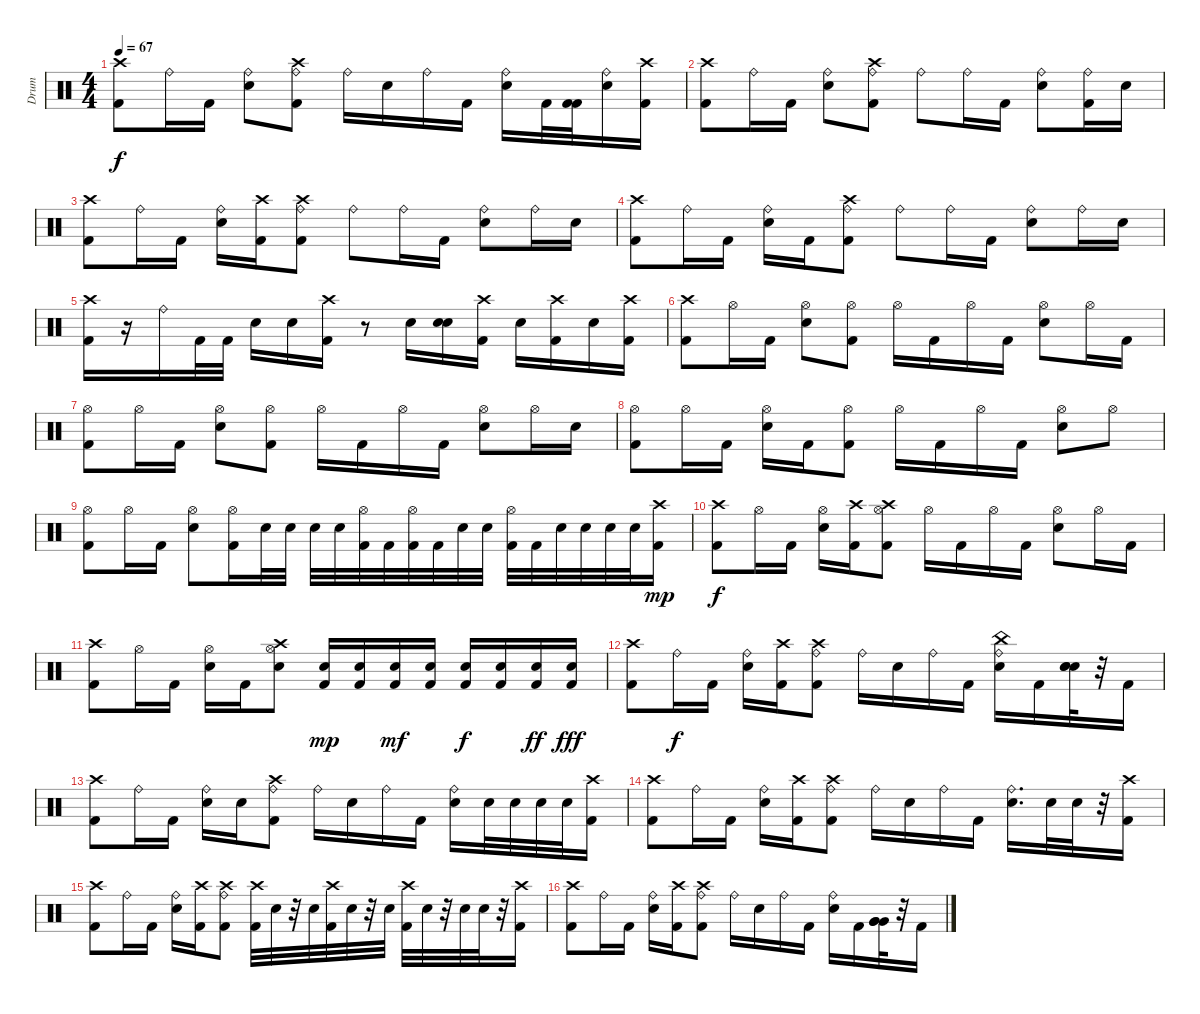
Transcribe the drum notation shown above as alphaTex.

\track ("Drum" "Drum") {instrument percussion}
\staff {score}
\articulation defaults
\ts (4 4)
\tempo 67
\clef neutral
\ks c
("Kick (hit) 2" "Crash high (hit)").8{dy f} "Ride (bell)".16 "Kick (hit) 2".16 ("Electric Snare (hit)" "Ride (bell)").8 ("Kick (hit) 2" "Ride (bell)" "Crash high (hit)").8 "Ride (bell)".16 "Electric Snare (hit)".16 "Ride (bell)".16 "Kick (hit) 2".16 ("Ride (bell)" "Electric Snare (hit)").16 "Kick (hit) 2".32 ("Kick (hit) 2" "Kick (hit) 2").32 ("Ride (bell)" "Electric Snare (hit)").16 ("Kick (hit) 2" "Crash high (hit)").16 |
("Crash high (hit)" "Kick (hit) 2").8 "Ride (bell)".16 "Kick (hit) 2".16 ("Electric Snare (hit)" "Ride (bell)").8 ("Kick (hit) 2" "Ride (bell)" "Crash high (hit)").8 "Ride (bell)".8 "Ride (bell)".16 "Kick (hit) 2".16 ("Electric Snare (hit)" "Ride (bell)").8 ("Ride (bell)" "Kick (hit) 2").16 "Electric Snare (hit)".16 |
("Kick (hit) 2" "Crash high (hit)").8 "Ride (bell)".16 "Kick (hit) 2".16 ("Ride (bell)" "Electric Snare (hit)").16 ("Crash high (hit)" "Kick (hit) 2").16 ("Kick (hit) 2" "Ride (bell)" "Crash high (hit)").8 "Ride (bell)".8 "Ride (bell)".16 "Kick (hit) 2".16 ("Electric Snare (hit)" "Ride (bell)").8 "Ride (bell)".16 "Electric Snare (hit)".16 |
("Crash high (hit)" "Kick (hit) 2").8 "Ride (bell)".16 "Kick (hit) 2".16 ("Ride (bell)" "Electric Snare (hit)").16 "Kick (hit) 2".16 ("Kick (hit) 2" "Ride (bell)" "Crash high (hit)").8 "Ride (bell)".8 "Ride (bell)".16 "Kick (hit) 2".16 ("Electric Snare (hit)" "Ride (bell)").8 "Ride (bell)".16 "Electric Snare (hit)".16 |
("Crash high (hit)" "Kick (hit) 2").16 r.16 "Ride (bell)".16 "Kick (hit) 2".32 "Kick (hit) 2".32 "Electric Snare (hit)".16 "Electric Snare (hit)".16 ("Crash high (hit)" "Kick (hit) 2").16 r.8 "Electric Snare (hit)".16 ("Electric Snare (hit)" "Electric Snare (hit)").16 ("Crash high (hit)" "Kick (hit) 2").16 "Electric Snare (hit)".16 ("Crash high (hit)" "Kick (hit) 2").16 "Electric Snare (hit)".16 ("Kick (hit) 2" "Crash high (hit)").16 |
("Crash high (hit)" "Kick (hit) 2").8 "Hi-Hat (open)".16 "Kick (hit) 2".16 ("Hi-Hat (open)" "Electric Snare (hit)").8 ("Hi-Hat (open)" "Kick (hit) 2").8 "Hi-Hat (open)".16 "Kick (hit) 2".16 "Hi-Hat (open)".16 "Kick (hit) 2".16 ("Hi-Hat (open)" "Electric Snare (hit)").8 "Hi-Hat (open)".16 "Kick (hit) 2".16 |
("Kick (hit) 2" "Hi-Hat (open)").8 "Hi-Hat (open)".16 "Kick (hit) 2".16 ("Hi-Hat (open)" "Electric Snare (hit)").8 ("Hi-Hat (open)" "Kick (hit) 2").8 "Hi-Hat (open)".16 "Kick (hit) 2".16 "Hi-Hat (open)".16 "Kick (hit) 2".16 ("Hi-Hat (open)" "Electric Snare (hit)").8 "Hi-Hat (open)".16 "Electric Snare (hit)".16 |
("Hi-Hat (open)" "Kick (hit) 2").8 "Hi-Hat (open)".16 "Kick (hit) 2".16 ("Hi-Hat (open)" "Electric Snare (hit)").16 "Kick (hit) 2".16 ("Hi-Hat (open)" "Kick (hit) 2").8 "Hi-Hat (open)".16 "Kick (hit) 2".16 "Hi-Hat (open)".16 "Kick (hit) 2".16 ("Hi-Hat (open)" "Electric Snare (hit)").8 "Hi-Hat (open)".8 |
("Hi-Hat (open)" "Kick (hit) 2").8 "Hi-Hat (open)".16 "Kick (hit) 2".16 ("Electric Snare (hit)" "Hi-Hat (open)").8 ("Kick (hit) 2" "Hi-Hat (open)").16 "Electric Snare (hit)".32 "Electric Snare (hit)".32 "Electric Snare (hit)".32 "Electric Snare (hit)".32 ("Kick (hit) 2" "Hi-Hat (open)").32 "Kick (hit) 2".32 ("Kick (hit) 2" "Hi-Hat (open)").32 "Kick (hit) 2".32 "Electric Snare (hit)".32 "Electric Snare (hit)".32 ("Kick (hit) 2" "Hi-Hat (open)").32 "Kick (hit) 2".32 "Electric Snare (hit)".32 "Electric Snare (hit)".32 "Electric Snare (hit)".32 "Electric Snare (hit)".32 ("Crash high (hit)" "Kick (hit) 2").16{dy mp} |
("Kick (hit) 2" "Crash high (hit)").8{dy f} "Hi-Hat (open)".16 "Kick (hit) 2".16 ("Hi-Hat (open)" "Electric Snare (hit)").16 ("Kick (hit) 2" "Crash high (hit)").16 ("Hi-Hat (open)" "Kick (hit) 2" "Crash high (hit)").8 "Hi-Hat (open)".16 "Kick (hit) 2".16 "Hi-Hat (open)".16 "Kick (hit) 2".16 ("Hi-Hat (open)" "Electric Snare (hit)").8 "Hi-Hat (open)".16 "Kick (hit) 2".16 |
("Kick (hit) 2" "Crash high (hit)").8 "Hi-Hat (open)".16 "Kick (hit) 2".16 ("Hi-Hat (open)" "Electric Snare (hit)").16 "Kick (hit) 2".16 ("Hi-Hat (open)" "Crash high (hit)" "Electric Snare (hit)").8 ("Kick (hit) 2" "Electric Snare (hit)").16{dy mp} ("Electric Snare (hit)" "Kick (hit) 2").16 ("Electric Snare (hit)" "Kick (hit) 2").16{dy mf} ("Electric Snare (hit)" "Kick (hit) 2").16 ("Electric Snare (hit)" "Kick (hit) 2").16{dy f} ("Electric Snare (hit)" "Kick (hit) 2").16 ("Electric Snare (hit)" "Kick (hit) 2").16{dy ff} ("Electric Snare (hit)" "Kick (hit) 2").16{dy fff} |
("Crash high (hit)" "Kick (hit) 2").8 "Ride (bell)".16{dy f} "Kick (hit) 2".16 ("Ride (bell)" "Electric Snare (hit)").16 ("Kick (hit) 2" "Crash high (hit)").16 ("Ride (bell)" "Crash high (hit)" "Kick (hit) 2").8 "Ride (bell)".16 "Electric Snare (hit)".16 "Ride (bell)".16 "Kick (hit) 2".16 ("Electric Snare (hit)" "Ride (bell)" "China (hit)").16 "Kick (hit) 2".16 ("Electric Snare (hit)" "Electric Snare (hit)" "Electric Snare (hit)").32 r.32 "Kick (hit) 2".16 |
("Kick (hit) 2" "Crash high (hit)").8 "Ride (bell)".16 "Kick (hit) 2".16 ("Ride (bell)" "Electric Snare (hit)").16 "Electric Snare (hit)".16 ("Ride (bell)" "Crash high (hit)" "Kick (hit) 2").8 "Ride (bell)".16 "Electric Snare (hit)".16 "Ride (bell)".16 "Kick (hit) 2".16 ("Ride (bell)" "Electric Snare (hit)").16 "Electric Snare (hit)".32 "Electric Snare (hit)".32 "Electric Snare (hit)".32 "Electric Snare (hit)".32 ("Crash high (hit)" "Kick (hit) 2").16 |
("Kick (hit) 2" "Crash high (hit)").8 "Ride (bell)".16 "Kick (hit) 2".16 ("Ride (bell)" "Electric Snare (hit)").16 ("Crash high (hit)" "Kick (hit) 2").16 ("Ride (bell)" "Crash high (hit)" "Kick (hit) 2").8 "Ride (bell)".16 "Electric Snare (hit)".16 "Ride (bell)".16 "Kick (hit) 2".16 ("Electric Snare (hit)" "Ride (bell)").16{d} "Electric Snare (hit)".32 "Electric Snare (hit)".32 r.32 ("Kick (hit) 2" "Crash high (hit)").16 |
("Crash high (hit)" "Kick (hit) 2").8 "Ride (bell)".16 "Kick (hit) 2".16 ("Ride (bell)" "Electric Snare (hit)").16 ("Crash high (hit)" "Kick (hit) 2").16 ("Ride (bell)" "Crash high (hit)" "Kick (hit) 2").8 ("Kick (hit) 2" "Crash high (hit)").32 "Electric Snare (hit)".32 r.32 "Electric Snare (hit)".32 ("Kick (hit) 2" "Crash high (hit)").32 "Electric Snare (hit)".32 r.32 "Electric Snare (hit)".32 ("Kick (hit) 2" "Crash high (hit)").32 "Electric Snare (hit)".32 r.32 "Electric Snare (hit)".32 "Electric Snare (hit)".32 r.32 ("Crash high (hit)" "Kick (hit) 2").16 |
("Kick (hit) 2" "Crash high (hit)").8 "Ride (bell)".16 "Kick (hit) 2".16 ("Ride (bell)" "Electric Snare (hit)").16 ("Kick (hit) 2" "Crash high (hit)").16 ("Ride (bell)" "Crash high (hit)" "Kick (hit) 2").8 "Ride (bell)".16 "Electric Snare (hit)".16 "Ride (bell)".16 "Kick (hit) 2".16 ("Electric Snare (hit)" "Ride (bell)").16 "Kick (hit) 2".16 ("Very Low Tom (hit)" "Very Low Tom (hit)" "Very Low Tom (hit)").32 r.32 "Kick (hit) 2".16
